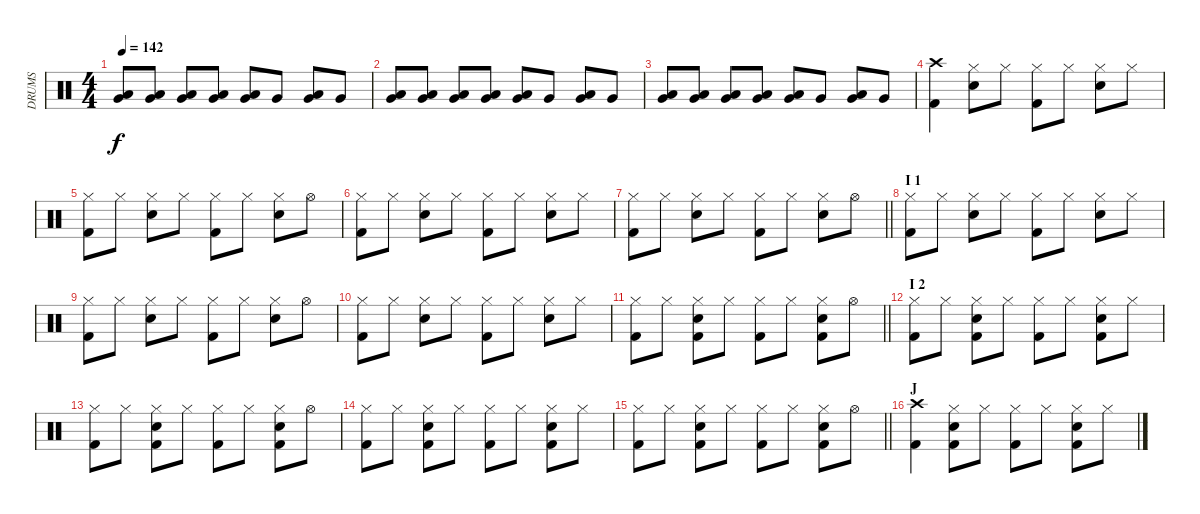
\track ("DRUMS" "DRUMS") {instrument percussion}
\staff {score}
\articulation defaults
\ts (4 4)
\tempo 142
\clef neutral
\ks c
("Low Tom (hit)" "Very Low Tom (hit)").8{dy f} ("Low Tom (hit)" "Very Low Tom (hit)").8 ("Low Tom (hit)" "Very Low Tom (hit)").8 ("Low Tom (hit)" "Very Low Tom (hit)").8 ("Low Tom (hit)" "Very Low Tom (hit)").8 "Very Low Tom (hit)".8 ("Low Tom (hit)" "Very Low Tom (hit)").8 "Very Low Tom (hit)".8 |
("Low Tom (hit)" "Very Low Tom (hit)").8 ("Low Tom (hit)" "Very Low Tom (hit)").8 ("Low Tom (hit)" "Very Low Tom (hit)").8 ("Low Tom (hit)" "Very Low Tom (hit)").8 ("Low Tom (hit)" "Very Low Tom (hit)").8 "Very Low Tom (hit)".8 ("Low Tom (hit)" "Very Low Tom (hit)").8 "Very Low Tom (hit)".8 |
("Low Tom (hit)" "Very Low Tom (hit)").8 ("Low Tom (hit)" "Very Low Tom (hit)").8 ("Low Tom (hit)" "Very Low Tom (hit)").8 ("Low Tom (hit)" "Very Low Tom (hit)").8 ("Low Tom (hit)" "Very Low Tom (hit)").8 "Very Low Tom (hit)".8 ("Low Tom (hit)" "Very Low Tom (hit)").8 "Very Low Tom (hit)".8 |
("Crash high (hit)" "Kick (hit) 2").4 ("Hi-Hat (closed)" "Snare (hit) 2").8 "Hi-Hat (closed)".8 ("Hi-Hat (closed)" "Kick (hit) 2").8 "Hi-Hat (closed)".8 ("Hi-Hat (closed)" "Snare (hit) 2").8 "Hi-Hat (closed)".8 |
("Hi-Hat (closed)" "Kick (hit) 2").8 "Hi-Hat (closed)".8 ("Hi-Hat (closed)" "Snare (hit) 2").8 "Hi-Hat (closed)".8 ("Hi-Hat (closed)" "Kick (hit) 2").8 "Hi-Hat (closed)".8 ("Hi-Hat (closed)" "Snare (hit) 2").8 "Hi-Hat (open)".8 |
("Hi-Hat (closed)" "Kick (hit) 2").8 "Hi-Hat (closed)".8 ("Hi-Hat (closed)" "Snare (hit) 2").8 "Hi-Hat (closed)".8 ("Hi-Hat (closed)" "Kick (hit) 2").8 "Hi-Hat (closed)".8 ("Hi-Hat (closed)" "Snare (hit) 2").8 "Hi-Hat (closed)".8 |
\barLineRight lightlight
("Hi-Hat (closed)" "Kick (hit) 2").8 "Hi-Hat (closed)".8 ("Hi-Hat (closed)" "Snare (hit) 2").8 "Hi-Hat (closed)".8 ("Hi-Hat (closed)" "Kick (hit) 2").8 "Hi-Hat (closed)".8 ("Hi-Hat (closed)" "Snare (hit) 2").8 "Hi-Hat (open)".8 |
\section ("" "I 1")
("Hi-Hat (closed)" "Kick (hit) 2").8 "Hi-Hat (closed)".8 ("Hi-Hat (closed)" "Snare (hit) 2").8 "Hi-Hat (closed)".8 ("Hi-Hat (closed)" "Kick (hit) 2").8 "Hi-Hat (closed)".8 ("Hi-Hat (closed)" "Snare (hit) 2").8 "Hi-Hat (closed)".8 |
("Hi-Hat (closed)" "Kick (hit) 2").8 "Hi-Hat (closed)".8 ("Hi-Hat (closed)" "Snare (hit) 2").8 "Hi-Hat (closed)".8 ("Hi-Hat (closed)" "Kick (hit) 2").8 "Hi-Hat (closed)".8 ("Hi-Hat (closed)" "Snare (hit) 2").8 "Hi-Hat (open)".8 |
("Hi-Hat (closed)" "Kick (hit) 2").8 "Hi-Hat (closed)".8 ("Hi-Hat (closed)" "Snare (hit) 2").8 "Hi-Hat (closed)".8 ("Hi-Hat (closed)" "Kick (hit) 2").8 "Hi-Hat (closed)".8 ("Hi-Hat (closed)" "Snare (hit) 2").8 "Hi-Hat (closed)".8 |
\barLineRight lightlight
("Hi-Hat (closed)" "Kick (hit) 2").8 "Hi-Hat (closed)".8 ("Hi-Hat (closed)" "Snare (hit) 2" "Kick (hit) 2").8 "Hi-Hat (closed)".8 ("Hi-Hat (closed)" "Kick (hit) 2").8 "Hi-Hat (closed)".8 ("Hi-Hat (closed)" "Snare (hit) 2" "Kick (hit) 2").8 "Hi-Hat (open)".8 |
\section ("" "I 2")
("Hi-Hat (closed)" "Kick (hit) 2").8 "Hi-Hat (closed)".8 ("Hi-Hat (closed)" "Snare (hit) 2" "Kick (hit) 2").8 "Hi-Hat (closed)".8 ("Hi-Hat (closed)" "Kick (hit) 2").8 "Hi-Hat (closed)".8 ("Hi-Hat (closed)" "Snare (hit) 2" "Kick (hit) 2").8 "Hi-Hat (closed)".8 |
("Hi-Hat (closed)" "Kick (hit) 2").8 "Hi-Hat (closed)".8 ("Hi-Hat (closed)" "Snare (hit) 2" "Kick (hit) 2").8 "Hi-Hat (closed)".8 ("Hi-Hat (closed)" "Kick (hit) 2").8 "Hi-Hat (closed)".8 ("Hi-Hat (closed)" "Snare (hit) 2" "Kick (hit) 2").8 "Hi-Hat (open)".8 |
("Hi-Hat (closed)" "Kick (hit) 2").8 "Hi-Hat (closed)".8 ("Hi-Hat (closed)" "Snare (hit) 2" "Kick (hit) 2").8 "Hi-Hat (closed)".8 ("Hi-Hat (closed)" "Kick (hit) 2").8 "Hi-Hat (closed)".8 ("Hi-Hat (closed)" "Snare (hit) 2" "Kick (hit) 2").8 "Hi-Hat (closed)".8 |
\barLineRight lightlight
("Hi-Hat (closed)" "Kick (hit) 2").8 "Hi-Hat (closed)".8 ("Hi-Hat (closed)" "Snare (hit) 2" "Kick (hit) 2").8 "Hi-Hat (closed)".8 ("Hi-Hat (closed)" "Kick (hit) 2").8 "Hi-Hat (closed)".8 ("Hi-Hat (closed)" "Snare (hit) 2" "Kick (hit) 2").8 "Hi-Hat (open)".8 |
\section ("" "J")
("Crash high (hit)" "Kick (hit) 2").4 ("Hi-Hat (closed)" "Snare (hit) 2" "Kick (hit) 2").8 "Hi-Hat (closed)".8 ("Hi-Hat (closed)" "Kick (hit) 2").8 "Hi-Hat (closed)".8 ("Hi-Hat (closed)" "Snare (hit) 2" "Kick (hit) 2").8 "Hi-Hat (closed)".8
